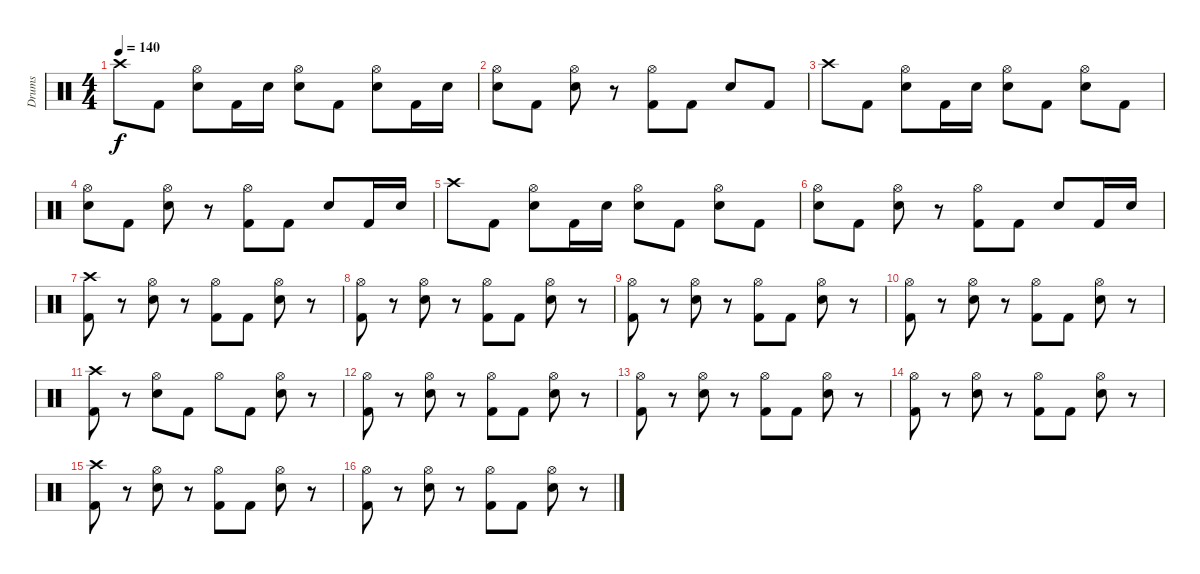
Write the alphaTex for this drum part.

\track ("Drums" "Drums") {instrument percussion}
\staff {score}
\articulation defaults
\ts (4 4)
\tempo 140
\clef neutral
\ks c "Crash high (hit)".8{dy f} "Kick (hit) 2".8
("Hi-Hat (open)" "Electric Snare (hit)").8 "Kick (hit) 2".16 "Electric Snare (hit)".16 ("Hi-Hat (open)" "Electric Snare (hit)").8 "Kick (hit) 2".8 ("Hi-Hat (open)" "Electric Snare (hit)").8 "Kick (hit) 2".16 "Electric Snare (hit)".16 |
("Hi-Hat (open)" "Electric Snare (hit)").8 "Kick (hit) 2".8 ("Hi-Hat (open)" "Electric Snare (hit)").8 r.8 ("Hi-Hat (open)" "Kick (hit) 2").8 "Kick (hit) 2".8 "Electric Snare (hit)".8 "Kick (hit) 2".8 |
"Crash high (hit)".8 "Kick (hit) 2".8 ("Hi-Hat (open)" "Electric Snare (hit)").8 "Kick (hit) 2".16 "Electric Snare (hit)".16 ("Hi-Hat (open)" "Electric Snare (hit)").8 "Kick (hit) 2".8 ("Hi-Hat (open)" "Electric Snare (hit)").8 "Kick (hit) 2".8 |
("Hi-Hat (open)" "Electric Snare (hit)").8 "Kick (hit) 2".8 ("Hi-Hat (open)" "Electric Snare (hit)").8 r.8 ("Hi-Hat (open)" "Kick (hit) 2").8 "Kick (hit) 2".8 "Electric Snare (hit)".8 "Kick (hit) 2".16 "Electric Snare (hit)".16 |
"Crash high (hit)".8 "Kick (hit) 2".8 ("Hi-Hat (open)" "Electric Snare (hit)").8 "Kick (hit) 2".16 "Electric Snare (hit)".16 ("Hi-Hat (open)" "Electric Snare (hit)").8 "Kick (hit) 2".8 ("Hi-Hat (open)" "Electric Snare (hit)").8 "Kick (hit) 2".8 |
("Hi-Hat (open)" "Electric Snare (hit)").8 "Kick (hit) 2".8 ("Hi-Hat (open)" "Electric Snare (hit)").8 r.8 ("Hi-Hat (open)" "Kick (hit) 2").8 "Kick (hit) 2".8 "Electric Snare (hit)".8 "Kick (hit) 2".16 "Electric Snare (hit)".16 |
("Crash high (hit)" "Kick (hit) 2").8 r.8 ("Hi-Hat (open)" "Electric Snare (hit)").8 r.8 ("Hi-Hat (open)" "Kick (hit) 2").8 "Kick (hit) 2".8 ("Hi-Hat (open)" "Electric Snare (hit)").8 r.8 |
("Hi-Hat (open)" "Kick (hit) 2").8 r.8 ("Hi-Hat (open)" "Electric Snare (hit)").8 r.8 ("Hi-Hat (open)" "Kick (hit) 2").8 "Kick (hit) 2".8 ("Hi-Hat (open)" "Electric Snare (hit)").8 r.8 |
("Hi-Hat (open)" "Kick (hit) 2").8 r.8 ("Hi-Hat (open)" "Electric Snare (hit)").8 r.8 ("Hi-Hat (open)" "Kick (hit) 2").8 "Kick (hit) 2".8 ("Hi-Hat (open)" "Electric Snare (hit)").8 r.8 |
("Hi-Hat (open)" "Kick (hit) 2").8 r.8 ("Hi-Hat (open)" "Electric Snare (hit)").8 r.8 ("Hi-Hat (open)" "Kick (hit) 2").8 "Kick (hit) 2".8 ("Hi-Hat (open)" "Electric Snare (hit)").8 r.8 |
("Crash high (hit)" "Kick (hit) 2").8 r.8 ("Hi-Hat (open)" "Electric Snare (hit)").8 "Kick (hit) 2".8 "Hi-Hat (open)".8 "Kick (hit) 2".8 ("Hi-Hat (open)" "Electric Snare (hit)").8 r.8 |
("Hi-Hat (open)" "Kick (hit) 2").8 r.8 ("Hi-Hat (open)" "Electric Snare (hit)").8 r.8 ("Hi-Hat (open)" "Kick (hit) 2").8 "Kick (hit) 2".8 ("Hi-Hat (open)" "Electric Snare (hit)").8 r.8 |
("Hi-Hat (open)" "Kick (hit) 2").8 r.8 ("Hi-Hat (open)" "Electric Snare (hit)").8 r.8 ("Hi-Hat (open)" "Kick (hit) 2").8 "Kick (hit) 2".8 ("Hi-Hat (open)" "Electric Snare (hit)").8 r.8 |
("Hi-Hat (open)" "Kick (hit) 2").8 r.8 ("Hi-Hat (open)" "Electric Snare (hit)").8 r.8 ("Hi-Hat (open)" "Kick (hit) 2").8 "Kick (hit) 2".8 ("Hi-Hat (open)" "Electric Snare (hit)").8 r.8 |
("Crash high (hit)" "Kick (hit) 2").8 r.8 ("Hi-Hat (open)" "Electric Snare (hit)").8 r.8 ("Hi-Hat (open)" "Kick (hit) 2").8 "Kick (hit) 2".8 ("Hi-Hat (open)" "Electric Snare (hit)").8 r.8 |
("Hi-Hat (open)" "Kick (hit) 2").8 r.8 ("Hi-Hat (open)" "Electric Snare (hit)").8 r.8 ("Hi-Hat (open)" "Kick (hit) 2").8 "Kick (hit) 2".8 ("Hi-Hat (open)" "Electric Snare (hit)").8 r.8
